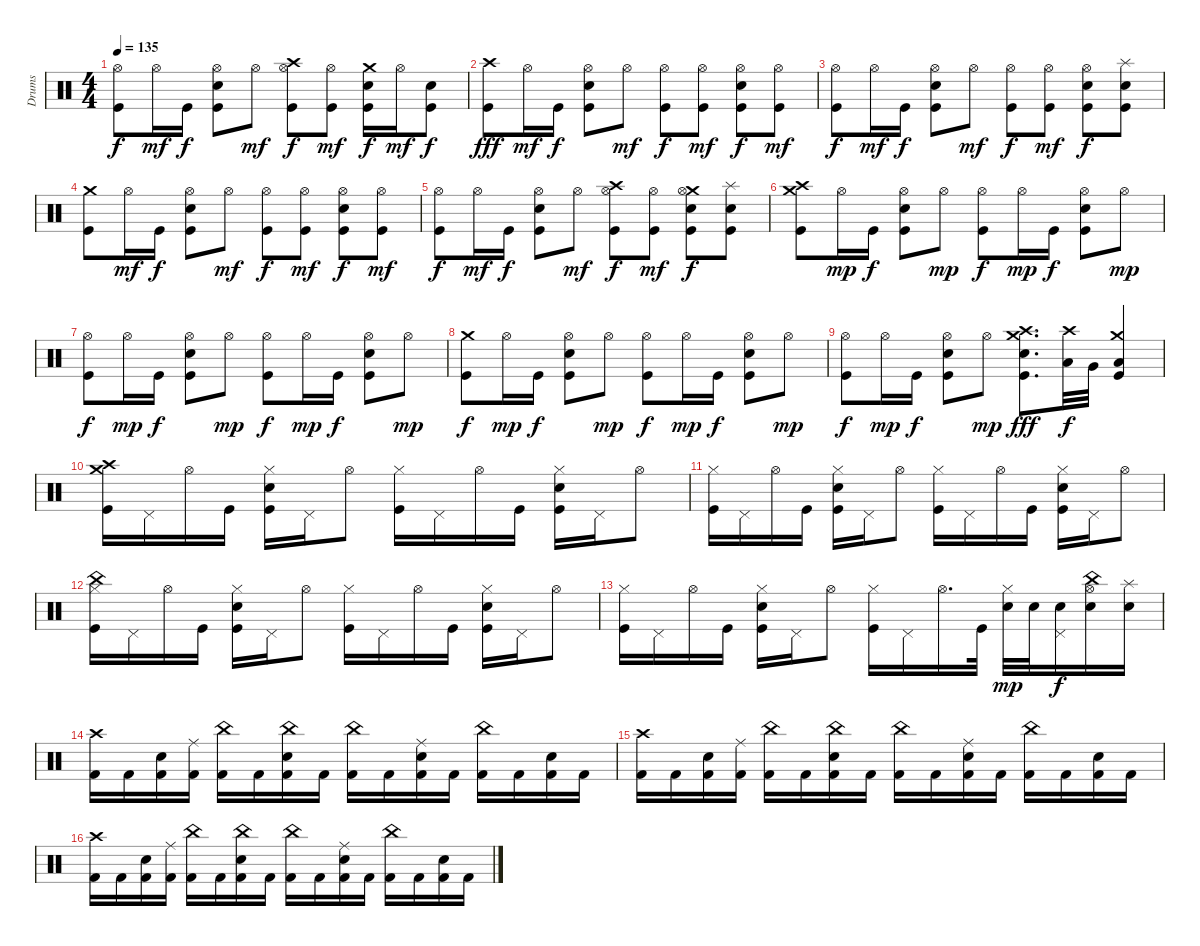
\track ("Drums" "Drums") {instrument percussion}
\staff {score}
\articulation defaults
\ts (4 4)
\tempo 135
\clef neutral
\ks c
("Hi-Hat (open)" "Kick (hit)").8{dy f} "Hi-Hat (open)".16{dy mf} "Kick (hit)".16{dy f} ("Hi-Hat (open)" "Snare (hit) 2" "Kick (hit)").8 "Hi-Hat (open)".8{dy mf} ("Crash high (hit)" "Hi-Hat (open)" "Kick (hit)").8{dy f} ("Kick (hit)" "Hi-Hat (open)").8{dy mf} ("Crash medium (hit)" "Snare (hit) 2" "Kick (hit)").16{dy f} "Hi-Hat (open)".16{dy mf} ("Kick (hit)" "Snare (hit) 2").8{dy f} |
("Kick (hit)" "Crash high (hit)").8{dy fff} "Hi-Hat (open)".16{dy mf} "Kick (hit)".16{dy f} ("Hi-Hat (open)" "Snare (hit) 2" "Kick (hit)").8 "Hi-Hat (open)".8{dy mf} ("Hi-Hat (open)" "Kick (hit)").8{dy f} ("Hi-Hat (open)" "Kick (hit)").8{dy mf} ("Kick (hit)" "Hi-Hat (open)" "Snare (hit) 2").8{dy f} ("Hi-Hat (open)" "Kick (hit)").8{dy mf} |
("Hi-Hat (open)" "Kick (hit)").8{dy f} "Hi-Hat (open)".16{dy mf} "Kick (hit)".16{dy f} ("Hi-Hat (open)" "Snare (hit) 2" "Kick (hit)").8 "Hi-Hat (open)".8{dy mf} ("Hi-Hat (open)" "Kick (hit)").8{dy f} ("Hi-Hat (open)" "Kick (hit)").8{dy mf} ("Kick (hit)" "Hi-Hat (open)" "Snare (hit) 2").8{dy f} ("Kick (hit)" "Splash (hit)" "Snare (hit) 2").8 |
("Crash medium (hit)" "Kick (hit)").8 "Hi-Hat (open)".16{dy mf} "Kick (hit)".16{dy f} ("Kick (hit)" "Hi-Hat (open)" "Snare (hit) 2").8 "Hi-Hat (open)".8{dy mf} ("Hi-Hat (open)" "Kick (hit)").8{dy f} ("Hi-Hat (open)" "Kick (hit)").8{dy mf} ("Kick (hit)" "Hi-Hat (open)" "Snare (hit) 2").8{dy f} ("Kick (hit)" "Hi-Hat (open)").8{dy mf} |
("Hi-Hat (open)" "Kick (hit)").8{dy f} "Hi-Hat (open)".16{dy mf} "Kick (hit)".16{dy f} ("Hi-Hat (open)" "Snare (hit) 2" "Kick (hit)").8 "Hi-Hat (open)".8{dy mf} ("Crash high (hit)" "Hi-Hat (open)" "Kick (hit)").8{dy f} ("Kick (hit)" "Hi-Hat (open)").8{dy mf} ("Crash medium (hit)" "Hi-Hat (open)" "Snare (hit) 2" "Kick (hit)").8{dy f} ("Kick (hit)" "Splash (hit)" "Snare (hit) 2").8 |
("Kick (hit)" "Crash medium (hit)" "Crash high (hit)").8 "Hi-Hat (open)".16{dy mp} "Kick (hit)".16{dy f} ("Snare (hit) 2" "Kick (hit)" "Hi-Hat (open)").8 "Hi-Hat (open)".8{dy mp} ("Kick (hit)" "Hi-Hat (open)").8{dy f} "Hi-Hat (open)".16{dy mp} "Kick (hit)".16{dy f} ("Snare (hit) 2" "Kick (hit)" "Hi-Hat (open)").8 "Hi-Hat (open)".8{dy mp} |
("Hi-Hat (open)" "Kick (hit)").8{dy f} "Hi-Hat (open)".16{dy mp} "Kick (hit)".16{dy f} ("Hi-Hat (open)" "Snare (hit) 2" "Kick (hit)").8 "Hi-Hat (open)".8{dy mp} ("Hi-Hat (open)" "Kick (hit)").8{dy f} "Hi-Hat (open)".16{dy mp} "Kick (hit)".16{dy f} ("Hi-Hat (open)" "Snare (hit) 2" "Kick (hit)").8 "Hi-Hat (open)".8{dy mp} |
("Crash medium (hit)" "Kick (hit)").8{dy f} "Hi-Hat (open)".16{dy mp} "Kick (hit)".16{dy f} ("Snare (hit) 2" "Kick (hit)" "Hi-Hat (open)").8 "Hi-Hat (open)".8{dy mp} ("Kick (hit)" "Hi-Hat (open)").8{dy f} "Hi-Hat (open)".16{dy mp} "Kick (hit)".16{dy f} ("Snare (hit) 2" "Kick (hit)" "Hi-Hat (open)").8 "Hi-Hat (open)".8{dy mp} |
("Kick (hit)" "Hi-Hat (open)").8{dy f} "Hi-Hat (open)".16{dy mp} "Kick (hit)".16{dy f} ("Snare (hit) 2" "Kick (hit)" "Hi-Hat (open)").8 "Hi-Hat (open)".8{dy mp} ("Crash medium (hit)" "Crash high (hit)" "Snare (hit) 2" "Kick (hit)").8{d dy fff} ("Crash high (hit)" "Low Tom (hit)").32{dy f} "Very Low Tom (hit)".32 ("Crash medium (hit)" "Kick (hit)" "Low Floor Tom (hit)").4 |
("Crash medium (hit)" "Crash high (hit)" "Kick (hit)").16 "Pedal Hi-Hat (hit)".16 "Hi-Hat (open)".16 "Kick (hit)".16 ("Hi-Hat (closed)" "Snare (hit) 2" "Kick (hit)").16 "Pedal Hi-Hat (hit)".16 "Hi-Hat (open)".8 ("Hi-Hat (closed)" "Kick (hit)").16 "Pedal Hi-Hat (hit)".16 "Hi-Hat (open)".16 "Kick (hit)".16 ("Hi-Hat (closed)" "Snare (hit) 2" "Kick (hit)").16 "Pedal Hi-Hat (hit)".16 "Hi-Hat (open)".8 |
("Hi-Hat (closed)" "Kick (hit)").16 "Pedal Hi-Hat (hit)".16 "Hi-Hat (open)".16 "Kick (hit)".16 ("Hi-Hat (closed)" "Snare (hit) 2" "Kick (hit)").16 "Pedal Hi-Hat (hit)".16 "Hi-Hat (open)".8 ("Hi-Hat (closed)" "Kick (hit)").16 "Pedal Hi-Hat (hit)".16 "Hi-Hat (open)".16 "Kick (hit)".16 ("Hi-Hat (closed)" "Snare (hit) 2" "Kick (hit)").16 "Pedal Hi-Hat (hit)".16 "Hi-Hat (open)".8 |
("China (hit)" "Hi-Hat (closed)" "Kick (hit)").16 "Pedal Hi-Hat (hit)".16 "Hi-Hat (open)".16 "Kick (hit)".16 ("Hi-Hat (closed)" "Snare (hit) 2" "Kick (hit)").16 "Pedal Hi-Hat (hit)".16 "Hi-Hat (open)".8 ("Hi-Hat (closed)" "Kick (hit)").16 "Pedal Hi-Hat (hit)".16 "Hi-Hat (open)".16 "Kick (hit)".16 ("Hi-Hat (closed)" "Snare (hit) 2" "Kick (hit)").16 "Pedal Hi-Hat (hit)".16 "Hi-Hat (open)".8 |
("Hi-Hat (closed)" "Kick (hit)").16 "Pedal Hi-Hat (hit)".16 "Hi-Hat (open)".16 "Kick (hit)".16 ("Hi-Hat (closed)" "Snare (hit) 2" "Kick (hit)").16 "Pedal Hi-Hat (hit)".16 "Hi-Hat (open)".8 ("Hi-Hat (closed)" "Kick (hit)").16 "Pedal Hi-Hat (hit)".16 "Hi-Hat (open)".16{d} "Kick (hit)".32 ("Hi-Hat (closed)" "Snare (hit) 2").32{dy mp} "Snare (hit) 2".32 ("Pedal Hi-Hat (hit)" "Snare (hit) 2").16{dy f} ("Hi-Hat (open)" "China (hit)" "Snare (hit) 2").16 ("Splash (hit)" "Snare (hit) 2").16 |
("Crash high (hit)" "Kick (hit) 2").16 "Kick (hit) 2".16 ("Snare (hit) 2" "Kick (hit) 2").16 ("Ride (middle)" "Kick (hit) 2").16 ("China (hit)" "Kick (hit) 2").16 "Kick (hit) 2".16 ("China (hit)" "Snare (hit) 2" "Kick (hit) 2").16 "Kick (hit) 2".16 ("China (hit)" "Kick (hit) 2").16 "Kick (hit) 2".16 ("Ride (middle)" "Snare (hit) 2" "Kick (hit) 2").16 "Kick (hit) 2".16 ("China (hit)" "Kick (hit) 2").16 "Kick (hit) 2".16 ("Snare (hit) 2" "Kick (hit) 2").16 "Kick (hit) 2".16 |
("Crash high (hit)" "Kick (hit) 2").16 "Kick (hit) 2".16 ("Snare (hit) 2" "Kick (hit) 2").16 ("Ride (middle)" "Kick (hit) 2").16 ("China (hit)" "Kick (hit) 2").16 "Kick (hit) 2".16 ("China (hit)" "Snare (hit) 2" "Kick (hit) 2").16 "Kick (hit) 2".16 ("China (hit)" "Kick (hit) 2").16 "Kick (hit) 2".16 ("Ride (middle)" "Snare (hit) 2" "Kick (hit) 2").16 "Kick (hit) 2".16 ("China (hit)" "Kick (hit) 2").16 "Kick (hit) 2".16 ("Snare (hit) 2" "Kick (hit) 2").16 "Kick (hit) 2".16 |
("Crash high (hit)" "Kick (hit) 2").16 "Kick (hit) 2".16 ("Snare (hit) 2" "Kick (hit) 2").16 ("Ride (middle)" "Kick (hit) 2").16 ("China (hit)" "Kick (hit) 2").16 "Kick (hit) 2".16 ("China (hit)" "Snare (hit) 2" "Kick (hit) 2").16 "Kick (hit) 2".16 ("China (hit)" "Kick (hit) 2").16 "Kick (hit) 2".16 ("Ride (middle)" "Snare (hit) 2" "Kick (hit) 2").16 "Kick (hit) 2".16 ("China (hit)" "Kick (hit) 2").16 "Kick (hit) 2".16 ("Snare (hit) 2" "Kick (hit) 2").16 "Kick (hit) 2".16
